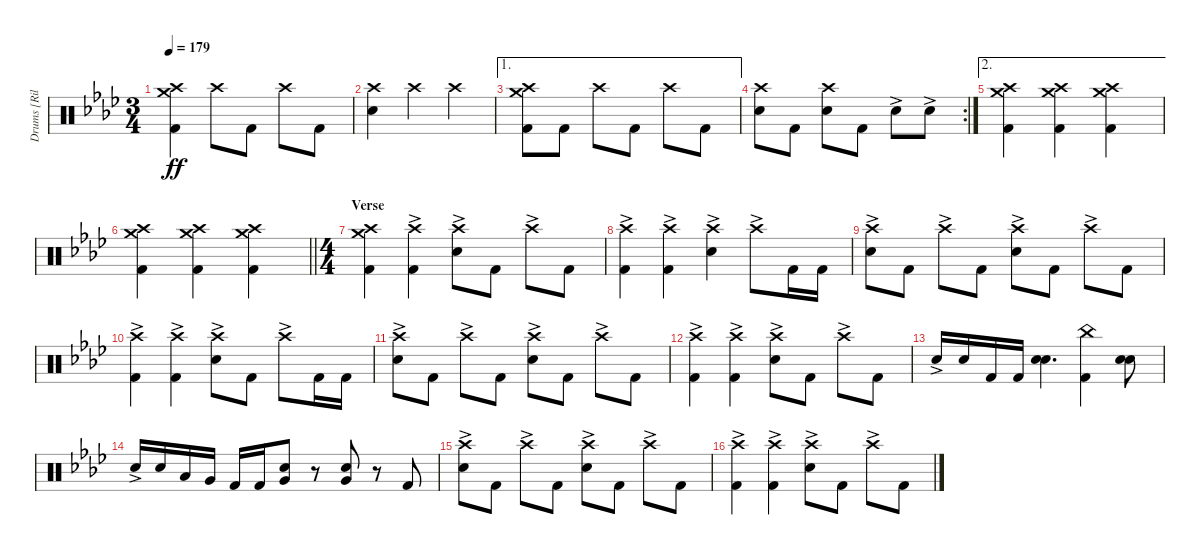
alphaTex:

\track ("Drums [Riley]" "Drums [Ril") {instrument percussion}
\staff {score}
\articulation defaults
\ts (3 4)
\tempo 179
\clef neutral
\ks ab
("Crash medium (hit)" "Crash high (hit)" "Kick (hit) 2").4{dy ff} "Crash high (hit)".8 "Kick (hit) 2".8 "Crash high (hit)".8 "Kick (hit) 2".8 |
("Crash high (hit)" "Electric Snare (hit)").4 "Crash high (hit)".4 "Crash high (hit)".4 |
\ae 1
("Crash medium (hit)" "Crash high (hit)" "Kick (hit) 2").8 "Kick (hit) 2".8 "Crash high (hit)".8 "Kick (hit) 2".8 "Crash high (hit)".8 "Kick (hit) 2".8 |
\rc 2
("Crash high (hit)" "Electric Snare (hit)").8 "Kick (hit) 2".8 ("Crash high (hit)" "Electric Snare (hit)").8 "Kick (hit) 2".8 "Electric Snare (hit)"{ac}.8 "Electric Snare (hit)"{ac}.8 |
\ae 2
("Crash medium (hit)" "Crash high (hit)" "Kick (hit) 2").4 ("Crash medium (hit)" "Crash high (hit)" "Kick (hit) 2").4 ("Crash medium (hit)" "Crash high (hit)" "Kick (hit) 2").4 |
\barLineRight lightlight
("Crash medium (hit)" "Crash high (hit)" "Kick (hit) 2").4 ("Crash medium (hit)" "Crash high (hit)" "Kick (hit) 2").4 ("Crash medium (hit)" "Crash high (hit)" "Kick (hit) 2").4 |
\ts (4 4)
\section ("" "Verse")
("Crash medium (hit)" "Crash high (hit)" "Kick (hit) 2").4 ("Crash high (hit)"{ac} "Kick (hit) 2").4 ("Crash high (hit)"{ac} "Electric Snare (hit)").8 "Kick (hit) 2".8 "Crash high (hit)"{ac}.8 "Kick (hit) 2".8 |
("Crash high (hit)"{ac} "Kick (hit) 2").4 ("Crash high (hit)"{ac} "Kick (hit) 2").4 ("Crash high (hit)"{ac} "Electric Snare (hit)").4 "Crash high (hit)"{ac}.8 "Kick (hit) 2".16 "Kick (hit) 2".16 |
("Crash high (hit)"{ac} "Electric Snare (hit)").8 "Kick (hit) 2".8 "Crash high (hit)"{ac}.8 "Kick (hit) 2".8 ("Crash high (hit)"{ac} "Electric Snare (hit)").8 "Kick (hit) 2".8 "Crash high (hit)"{ac}.8 "Kick (hit) 2".8 |
("Crash high (hit)"{ac} "Kick (hit) 2").4 ("Crash high (hit)"{ac} "Kick (hit) 2").4 ("Crash high (hit)"{ac} "Electric Snare (hit)").8 "Kick (hit) 2".8 "Crash high (hit)"{ac}.8 "Kick (hit) 2".16 "Kick (hit) 2".16 |
("Crash high (hit)"{ac} "Electric Snare (hit)").8 "Kick (hit) 2".8 "Crash high (hit)"{ac}.8 "Kick (hit) 2".8 ("Crash high (hit)"{ac} "Electric Snare (hit)").8 "Kick (hit) 2".8 "Crash high (hit)"{ac}.8 "Kick (hit) 2".8 |
("Crash high (hit)"{ac} "Kick (hit) 2").4 ("Crash high (hit)"{ac} "Kick (hit) 2").4 ("Crash high (hit)"{ac} "Electric Snare (hit)").8 "Kick (hit) 2".8 "Crash high (hit)"{ac}.8 "Kick (hit) 2".8 |
"Electric Snare (hit)"{ac}.16 "Electric Snare (hit)".16 "Kick (hit) 2".16 "Kick (hit) 2".16 ("Electric Snare (hit)" "Electric Snare (hit)").4{d bu 60} ("China (hit)" "Kick (hit) 2").4 ("Electric Snare (hit)" "Electric Snare (hit)").8{bu 60} |
"Electric Snare (hit)"{ac}.16 "Electric Snare (hit)".16 "Low Tom (hit)".16 "Very Low Tom (hit)".16 "Kick (hit) 2".16 "Kick (hit) 2".16 ("Very Low Tom (hit)" "Electric Snare (hit)").8{bu 60} r.8 ("Very Low Tom (hit)" "Electric Snare (hit)").8{bu 60} r.8 "Kick (hit) 2".8 |
("Crash high (hit)"{ac} "Electric Snare (hit)").8 "Kick (hit) 2".8 "Crash high (hit)"{ac}.8 "Kick (hit) 2".8 ("Crash high (hit)"{ac} "Electric Snare (hit)").8 "Kick (hit) 2".8 "Crash high (hit)"{ac}.8 "Kick (hit) 2".8 |
("Crash high (hit)"{ac} "Kick (hit) 2").4 ("Crash high (hit)"{ac} "Kick (hit) 2").4 ("Crash high (hit)"{ac} "Electric Snare (hit)").8 "Kick (hit) 2".8 "Crash high (hit)"{ac}.8 "Kick (hit) 2".8
